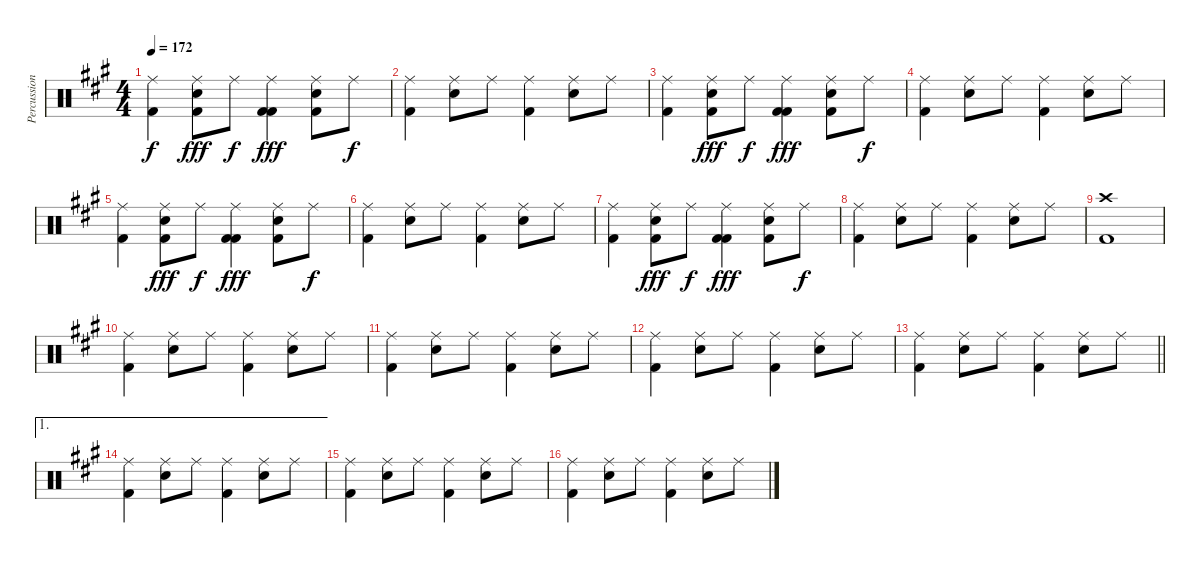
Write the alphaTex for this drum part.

\track ("Percussion" "Percussion") {instrument percussion}
\staff {score}
\articulation defaults
\ts (4 4)
\tempo 172
\clef neutral
\ks a
("Ride (middle)" "Kick (hit) 2").4{dy f} ("Ride (middle)" "Snare (hit) 2" "Kick (hit) 2").8{dy fff} "Ride (middle)".8{dy f} ("Ride (middle)" "Kick (hit) 2" "Kick (hit) 2").4{dy fff} ("Ride (middle)" "Snare (hit) 2" "Kick (hit) 2").8 "Ride (middle)".8{dy f} |
("Ride (middle)" "Kick (hit) 2").4 ("Ride (middle)" "Snare (hit) 2").8 "Ride (middle)".8 ("Ride (middle)" "Kick (hit) 2").4 ("Ride (middle)" "Snare (hit) 2").8 "Ride (middle)".8 |
("Ride (middle)" "Kick (hit) 2").4 ("Ride (middle)" "Snare (hit) 2" "Kick (hit) 2").8{dy fff} "Ride (middle)".8{dy f} ("Ride (middle)" "Kick (hit) 2" "Kick (hit) 2").4{dy fff} ("Ride (middle)" "Snare (hit) 2" "Kick (hit) 2").8 "Ride (middle)".8{dy f} |
("Ride (middle)" "Kick (hit) 2").4 ("Ride (middle)" "Snare (hit) 2").8 "Ride (middle)".8 ("Ride (middle)" "Kick (hit) 2").4 ("Ride (middle)" "Snare (hit) 2").8 "Ride (middle)".8 |
("Ride (middle)" "Kick (hit) 2").4 ("Ride (middle)" "Snare (hit) 2" "Kick (hit) 2").8{dy fff} "Ride (middle)".8{dy f} ("Ride (middle)" "Kick (hit) 2" "Kick (hit) 2").4{dy fff} ("Ride (middle)" "Snare (hit) 2" "Kick (hit) 2").8 "Ride (middle)".8{dy f} |
("Ride (middle)" "Kick (hit) 2").4 ("Ride (middle)" "Snare (hit) 2").8 "Ride (middle)".8 ("Ride (middle)" "Kick (hit) 2").4 ("Ride (middle)" "Snare (hit) 2").8 "Ride (middle)".8 |
("Ride (middle)" "Kick (hit) 2").4 ("Ride (middle)" "Snare (hit) 2" "Kick (hit) 2").8{dy fff} "Ride (middle)".8{dy f} ("Ride (middle)" "Kick (hit) 2" "Kick (hit) 2").4{dy fff} ("Ride (middle)" "Snare (hit) 2" "Kick (hit) 2").8 "Ride (middle)".8{dy f} |
("Ride (middle)" "Kick (hit) 2").4 ("Ride (middle)" "Snare (hit) 2").8 "Ride (middle)".8 ("Ride (middle)" "Kick (hit) 2").4 ("Ride (middle)" "Snare (hit) 2").8 "Ride (middle)".8 |
("Crash high (hit)" "Kick (hit) 2").1 |
("Ride (middle)" "Kick (hit) 2").4 ("Ride (middle)" "Snare (hit) 2").8 "Ride (middle)".8 ("Ride (middle)" "Kick (hit) 2").4 ("Ride (middle)" "Snare (hit) 2").8 "Ride (middle)".8 |
("Ride (middle)" "Kick (hit) 2").4 ("Ride (middle)" "Snare (hit) 2").8 "Ride (middle)".8 ("Ride (middle)" "Kick (hit) 2").4 ("Ride (middle)" "Snare (hit) 2").8 "Ride (middle)".8 |
("Ride (middle)" "Kick (hit) 2").4 ("Ride (middle)" "Snare (hit) 2").8 "Ride (middle)".8 ("Ride (middle)" "Kick (hit) 2").4 ("Ride (middle)" "Snare (hit) 2").8 "Ride (middle)".8 |
\barLineRight lightlight
("Ride (middle)" "Kick (hit) 2").4 ("Ride (middle)" "Snare (hit) 2").8 "Ride (middle)".8 ("Ride (middle)" "Kick (hit) 2").4 ("Ride (middle)" "Snare (hit) 2").8 "Ride (middle)".8 |
\ae 1
("Ride (middle)" "Kick (hit) 2").4 ("Ride (middle)" "Snare (hit) 2").8 "Ride (middle)".8 ("Ride (middle)" "Kick (hit) 2").4 ("Ride (middle)" "Snare (hit) 2").8 "Ride (middle)".8 |
("Ride (middle)" "Kick (hit) 2").4 ("Ride (middle)" "Snare (hit) 2").8 "Ride (middle)".8 ("Ride (middle)" "Kick (hit) 2").4 ("Ride (middle)" "Snare (hit) 2").8 "Ride (middle)".8 |
("Ride (middle)" "Kick (hit) 2").4 ("Ride (middle)" "Snare (hit) 2").8 "Ride (middle)".8 ("Ride (middle)" "Kick (hit) 2").4 ("Ride (middle)" "Snare (hit) 2").8 "Ride (middle)".8
